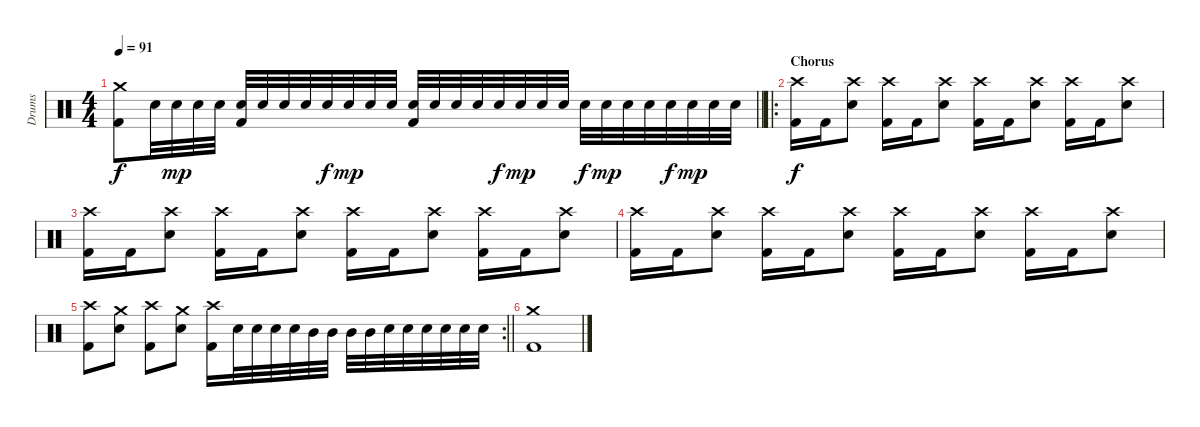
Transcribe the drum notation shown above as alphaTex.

\track ("Drums" "Drums") {instrument percussion bank 34}
\staff {score}
\articulation defaults
\ts (4 4)
\tempo 91
\clef neutral
\barLineRight lightlight
\ks c
("Crash medium (hit)" "Kick (hit) 2").8{dy f} "Electric Snare (hit)".32 "Electric Snare (hit)".32{dy mp} "Electric Snare (hit)".32 "Electric Snare (hit)".32 ("Electric Snare (hit)" "Kick (hit) 2").32 "Electric Snare (hit)".32 "Electric Snare (hit)".32 "Electric Snare (hit)".32 "Electric Snare (hit)".32{dy f} "Electric Snare (hit)".32{dy mp} "Electric Snare (hit)".32 "Electric Snare (hit)".32 ("Electric Snare (hit)" "Kick (hit) 2").32 "Electric Snare (hit)".32 "Electric Snare (hit)".32 "Electric Snare (hit)".32 "Electric Snare (hit)".32{dy f} "Electric Snare (hit)".32{dy mp} "Electric Snare (hit)".32 "Electric Snare (hit)".32 "Electric Snare (hit)".32{dy f} "Electric Snare (hit)".32{dy mp} "Electric Snare (hit)".32 "Electric Snare (hit)".32 "Electric Snare (hit)".32{dy f} "Electric Snare (hit)".32{dy mp} "Electric Snare (hit)".32 "Electric Snare (hit)".32 |
\ro
\section ("" "Chorus")
("Crash high (hit)" "Kick (hit) 2").16{dy f} "Kick (hit) 2".16 ("Crash high (hit)" "Electric Snare (hit)").8 ("Crash high (hit)" "Kick (hit) 2").16 "Kick (hit) 2".16 ("Crash high (hit)" "Electric Snare (hit)").8 ("Crash high (hit)" "Kick (hit) 2").16 "Kick (hit) 2".16 ("Crash high (hit)" "Electric Snare (hit)").8 ("Crash high (hit)" "Kick (hit) 2").16 "Kick (hit) 2".16 ("Crash high (hit)" "Electric Snare (hit)").8 |
("Crash high (hit)" "Kick (hit) 2").16 "Kick (hit) 2".16 ("Crash high (hit)" "Electric Snare (hit)").8 ("Crash high (hit)" "Kick (hit) 2").16 "Kick (hit) 2".16 ("Crash high (hit)" "Electric Snare (hit)").8 ("Crash high (hit)" "Kick (hit) 2").16 "Kick (hit) 2".16 ("Crash high (hit)" "Electric Snare (hit)").8 ("Crash high (hit)" "Kick (hit) 2").16 "Kick (hit) 2".16 ("Crash high (hit)" "Electric Snare (hit)").8 |
("Crash high (hit)" "Kick (hit) 2").16 "Kick (hit) 2".16 ("Crash high (hit)" "Electric Snare (hit)").8 ("Crash high (hit)" "Kick (hit) 2").16 "Kick (hit) 2".16 ("Crash high (hit)" "Electric Snare (hit)").8 ("Crash high (hit)" "Kick (hit) 2").16 "Kick (hit) 2".16 ("Crash high (hit)" "Electric Snare (hit)").8 ("Crash high (hit)" "Kick (hit) 2").16 "Kick (hit) 2".16 ("Crash high (hit)" "Electric Snare (hit)").8 |
\rc 2
\barLineRight lightlight
("Crash high (hit)" "Kick (hit) 2").8 ("Crash medium (hit)" "Electric Snare (hit)").8 ("Crash high (hit)" "Kick (hit) 2").8 ("Crash medium (hit)" "Electric Snare (hit)").8 ("Crash high (hit)" "Kick (hit) 2").16 "Electric Snare (hit)".32 "Electric Snare (hit)".32 "Electric Snare (hit)".32 "Electric Snare (hit)".32 "Mid Tom (hit)".32 "Mid Tom (hit)".32 "Mid Tom (hit)".32 "Mid Tom (hit)".32 "Electric Snare (hit)".32 "Electric Snare (hit)".32 "Electric Snare (hit)".32 "Electric Snare (hit)".32 "Electric Snare (hit)".32 "Electric Snare (hit)".32 |
("Crash medium (hit)" "Kick (hit) 2").1
